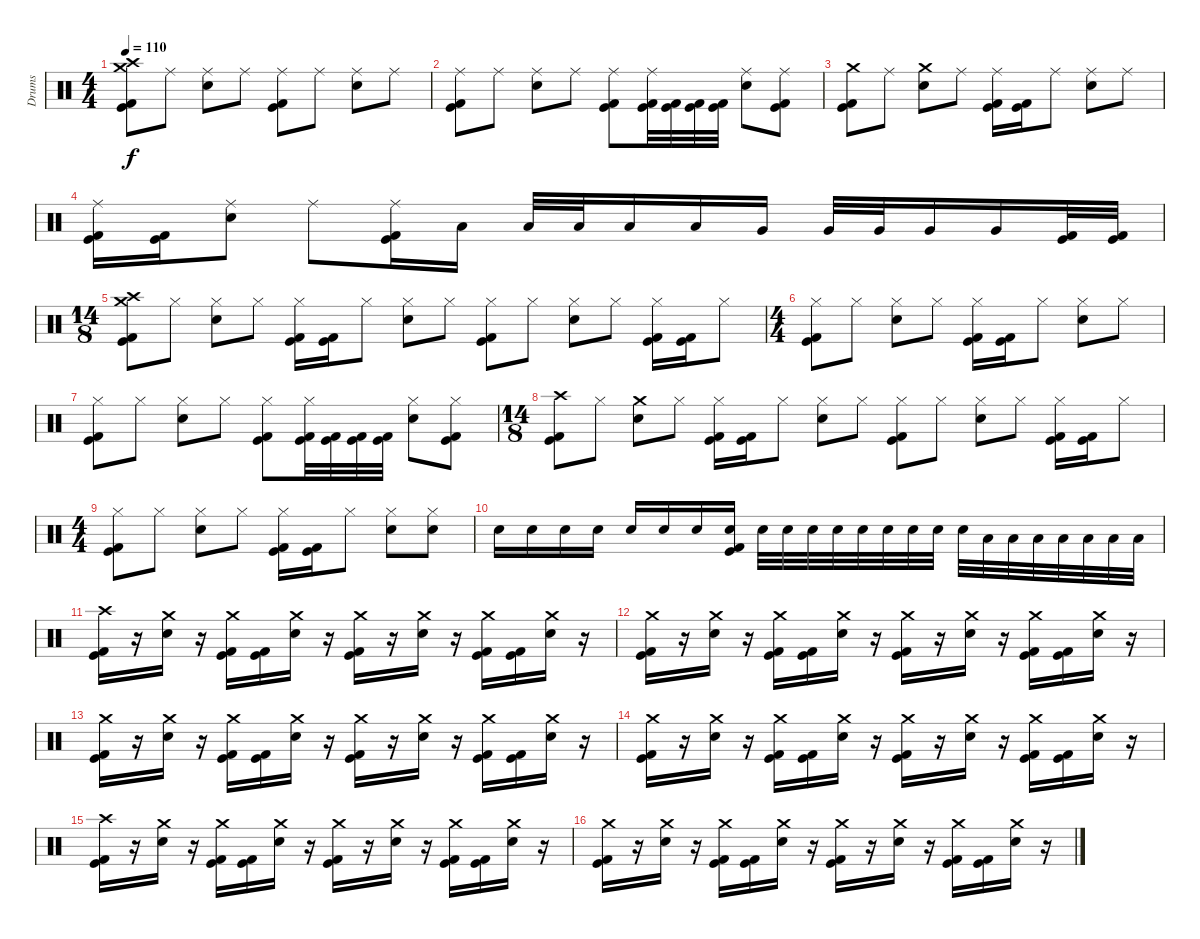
\track ("Drums" "Drums") {instrument percussion}
\staff {score}
\articulation defaults
\ts (4 4)
\tempo 110
\clef neutral
\ks c
("Crash medium (hit)" "Crash high (hit)" "Kick (hit)" "Kick (hit) 2").8{dy f} "Ride (middle)".8 ("Ride (middle)" "Electric Snare (hit)").8 "Ride (middle)".8 ("Ride (middle)" "Kick (hit)" "Kick (hit) 2").8 "Ride (middle)".8 ("Ride (middle)" "Electric Snare (hit)").8 "Ride (middle)".8 |
("Ride (middle)" "Kick (hit)" "Kick (hit) 2").8 "Ride (middle)".8 ("Ride (middle)" "Electric Snare (hit)").8 "Ride (middle)".8 ("Ride (middle)" "Kick (hit)" "Kick (hit) 2").8 ("Ride (middle)" "Kick (hit)" "Kick (hit) 2").32 ("Kick (hit)" "Kick (hit) 2").32 ("Kick (hit)" "Kick (hit) 2").32 ("Kick (hit)" "Kick (hit) 2").32 ("Ride (middle)" "Electric Snare (hit)").8 ("Ride (middle)" "Kick (hit)" "Kick (hit) 2").8 |
("Crash medium (hit)" "Kick (hit)" "Kick (hit) 2").8 "Ride (middle)".8 ("Crash medium (hit)" "Electric Snare (hit)").8 "Ride (middle)".8 ("Ride (middle)" "Kick (hit)" "Kick (hit) 2").16 ("Kick (hit)" "Kick (hit) 2").16 "Ride (middle)".8 ("Ride (middle)" "Electric Snare (hit)").8 "Ride (middle)".8 |
("Ride (middle)" "Kick (hit)" "Kick (hit) 2").16 ("Kick (hit)" "Kick (hit) 2").16 ("Ride (middle)" "Electric Snare (hit)").8 "Ride (middle)".8 ("Ride (middle)" "Kick (hit)" "Kick (hit) 2").16 "Low Tom (hit)".16 "Low Tom (hit)".32 "Low Tom (hit)".32 "Low Tom (hit)".16 "Low Tom (hit)".16 "Very Low Tom (hit)".16 "Very Low Tom (hit)".32 "Very Low Tom (hit)".32 "Very Low Tom (hit)".16 "Very Low Tom (hit)".16 ("Kick (hit)" "Kick (hit) 2").32 ("Kick (hit)" "Kick (hit) 2").32 |
\ts (14 8)
("Crash medium (hit)" "Crash high (hit)" "Kick (hit)" "Kick (hit) 2").8 "Hi-Hat (closed)".8 ("Hi-Hat (closed)" "Electric Snare (hit)").8 "Hi-Hat (closed)".8 ("Hi-Hat (closed)" "Kick (hit)" "Kick (hit) 2").16 ("Kick (hit)" "Kick (hit) 2").16 "Hi-Hat (closed)".8 ("Hi-Hat (closed)" "Electric Snare (hit)").8 "Hi-Hat (closed)".8 ("Hi-Hat (closed)" "Kick (hit)" "Kick (hit) 2").8 "Hi-Hat (closed)".8 ("Hi-Hat (closed)" "Electric Snare (hit)").8 "Hi-Hat (closed)".8 ("Hi-Hat (closed)" "Kick (hit)" "Kick (hit) 2").16 ("Kick (hit)" "Kick (hit) 2").16 "Hi-Hat (closed)".8 |
\ts (4 4)
("Hi-Hat (closed)" "Kick (hit)" "Kick (hit) 2").8 "Hi-Hat (closed)".8 ("Hi-Hat (closed)" "Electric Snare (hit)").8 "Hi-Hat (closed)".8 ("Hi-Hat (closed)" "Kick (hit)" "Kick (hit) 2").16 ("Kick (hit)" "Kick (hit) 2").16 "Hi-Hat (closed)".8 ("Hi-Hat (closed)" "Electric Snare (hit)").8 "Hi-Hat (closed)".8 |
("Hi-Hat (closed)" "Kick (hit)" "Kick (hit) 2").8 "Hi-Hat (closed)".8 ("Hi-Hat (closed)" "Electric Snare (hit)").8 "Hi-Hat (closed)".8 ("Hi-Hat (closed)" "Kick (hit)" "Kick (hit) 2").8 ("Hi-Hat (closed)" "Kick (hit)" "Kick (hit) 2").32 ("Kick (hit)" "Kick (hit) 2").32 ("Kick (hit)" "Kick (hit) 2").32 ("Kick (hit)" "Kick (hit) 2").32 ("Hi-Hat (closed)" "Electric Snare (hit)").8 ("Hi-Hat (closed)" "Kick (hit)" "Kick (hit) 2").8 |
\ts (14 8)
("Crash high (hit)" "Kick (hit)" "Kick (hit) 2").8 "Hi-Hat (closed)".8 ("Crash medium (hit)" "Electric Snare (hit)").8 "Hi-Hat (closed)".8 ("Hi-Hat (closed)" "Kick (hit)" "Kick (hit) 2").16 ("Kick (hit)" "Kick (hit) 2").16 "Hi-Hat (closed)".8 ("Hi-Hat (closed)" "Electric Snare (hit)").8 "Hi-Hat (closed)".8 ("Hi-Hat (closed)" "Kick (hit)" "Kick (hit) 2").8 "Hi-Hat (closed)".8 ("Hi-Hat (closed)" "Electric Snare (hit)").8 "Hi-Hat (closed)".8 ("Hi-Hat (closed)" "Kick (hit)" "Kick (hit) 2").16 ("Kick (hit)" "Kick (hit) 2").16 "Hi-Hat (closed)".8 |
\ts (4 4)
("Hi-Hat (closed)" "Kick (hit)" "Kick (hit) 2").8 "Hi-Hat (closed)".8 ("Hi-Hat (closed)" "Electric Snare (hit)").8 "Hi-Hat (closed)".8 ("Hi-Hat (closed)" "Kick (hit)" "Kick (hit) 2").16 ("Kick (hit)" "Kick (hit) 2").16 "Hi-Hat (closed)".8 ("Hi-Hat (closed)" "Electric Snare (hit)").8 ("Hi-Hat (closed)" "Electric Snare (hit)").8 |
"Electric Snare (hit)".16 "Electric Snare (hit)".16 "Electric Snare (hit)".16 "Electric Snare (hit)".16 "Electric Snare (hit)".16 "Electric Snare (hit)".16 "Electric Snare (hit)".16 ("Electric Snare (hit)" "Kick (hit)" "Kick (hit) 2").16 "Electric Snare (hit)".32 "Electric Snare (hit)".32 "Electric Snare (hit)".32 "Electric Snare (hit)".32 "Electric Snare (hit)".32 "Electric Snare (hit)".32 "Electric Snare (hit)".32 "Electric Snare (hit)".32 "Electric Snare (hit)".32 "Low Tom (hit)".32 "Low Tom (hit)".32 "Low Tom (hit)".32 "Low Tom (hit)".32 "Low Floor Tom (hit)".32 "Low Floor Tom (hit)".32 "Low Floor Tom (hit)".32 |
("Crash high (hit)" "Kick (hit)" "Kick (hit) 2").16 r.16 ("Crash medium (hit)" "Electric Snare (hit)").16 r.16 ("Crash medium (hit)" "Kick (hit)" "Kick (hit) 2").16 ("Kick (hit)" "Kick (hit) 2").16 ("Crash medium (hit)" "Electric Snare (hit)").16 r.16 ("Crash medium (hit)" "Kick (hit)" "Kick (hit) 2").16 r.16 ("Crash medium (hit)" "Electric Snare (hit)").16 r.16 ("Crash medium (hit)" "Kick (hit)" "Kick (hit) 2").16 ("Kick (hit)" "Kick (hit) 2").16 ("Crash medium (hit)" "Electric Snare (hit)").16 r.16 |
("Crash medium (hit)" "Kick (hit)" "Kick (hit) 2").16 r.16 ("Crash medium (hit)" "Electric Snare (hit)").16 r.16 ("Crash medium (hit)" "Kick (hit)" "Kick (hit) 2").16 ("Kick (hit)" "Kick (hit) 2").16 ("Crash medium (hit)" "Electric Snare (hit)").16 r.16 ("Crash medium (hit)" "Kick (hit)" "Kick (hit) 2").16 r.16 ("Crash medium (hit)" "Electric Snare (hit)").16 r.16 ("Crash medium (hit)" "Kick (hit)" "Kick (hit) 2").16 ("Kick (hit)" "Kick (hit) 2").16 ("Crash medium (hit)" "Electric Snare (hit)").16 r.16 |
("Crash medium (hit)" "Kick (hit)" "Kick (hit) 2").16 r.16 ("Crash medium (hit)" "Electric Snare (hit)").16 r.16 ("Crash medium (hit)" "Kick (hit)" "Kick (hit) 2").16 ("Kick (hit)" "Kick (hit) 2").16 ("Crash medium (hit)" "Electric Snare (hit)").16 r.16 ("Crash medium (hit)" "Kick (hit)" "Kick (hit) 2").16 r.16 ("Crash medium (hit)" "Electric Snare (hit)").16 r.16 ("Crash medium (hit)" "Kick (hit)" "Kick (hit) 2").16 ("Kick (hit)" "Kick (hit) 2").16 ("Crash medium (hit)" "Electric Snare (hit)").16 r.16 |
("Crash medium (hit)" "Kick (hit)" "Kick (hit) 2").16 r.16 ("Crash medium (hit)" "Electric Snare (hit)").16 r.16 ("Crash medium (hit)" "Kick (hit)" "Kick (hit) 2").16 ("Kick (hit)" "Kick (hit) 2").16 ("Crash medium (hit)" "Electric Snare (hit)").16 r.16 ("Crash medium (hit)" "Kick (hit)" "Kick (hit) 2").16 r.16 ("Crash medium (hit)" "Electric Snare (hit)").16 r.16 ("Crash medium (hit)" "Kick (hit)" "Kick (hit) 2").16 ("Kick (hit)" "Kick (hit) 2").16 ("Crash medium (hit)" "Electric Snare (hit)").16 r.16 |
("Crash high (hit)" "Kick (hit)" "Kick (hit) 2").16 r.16 ("Crash medium (hit)" "Electric Snare (hit)").16 r.16 ("Crash medium (hit)" "Kick (hit)" "Kick (hit) 2").16 ("Kick (hit)" "Kick (hit) 2").16 ("Crash medium (hit)" "Electric Snare (hit)").16 r.16 ("Crash medium (hit)" "Kick (hit)" "Kick (hit) 2").16 r.16 ("Crash medium (hit)" "Electric Snare (hit)").16 r.16 ("Crash medium (hit)" "Kick (hit)" "Kick (hit) 2").16 ("Kick (hit)" "Kick (hit) 2").16 ("Crash medium (hit)" "Electric Snare (hit)").16 r.16 |
("Crash medium (hit)" "Kick (hit)" "Kick (hit) 2").16 r.16 ("Crash medium (hit)" "Electric Snare (hit)").16 r.16 ("Crash medium (hit)" "Kick (hit)" "Kick (hit) 2").16 ("Kick (hit)" "Kick (hit) 2").16 ("Crash medium (hit)" "Electric Snare (hit)").16 r.16 ("Crash medium (hit)" "Kick (hit)" "Kick (hit) 2").16 r.16 ("Crash medium (hit)" "Electric Snare (hit)").16 r.16 ("Crash medium (hit)" "Kick (hit)" "Kick (hit) 2").16 ("Kick (hit)" "Kick (hit) 2").16 ("Crash medium (hit)" "Electric Snare (hit)").16 r.16
